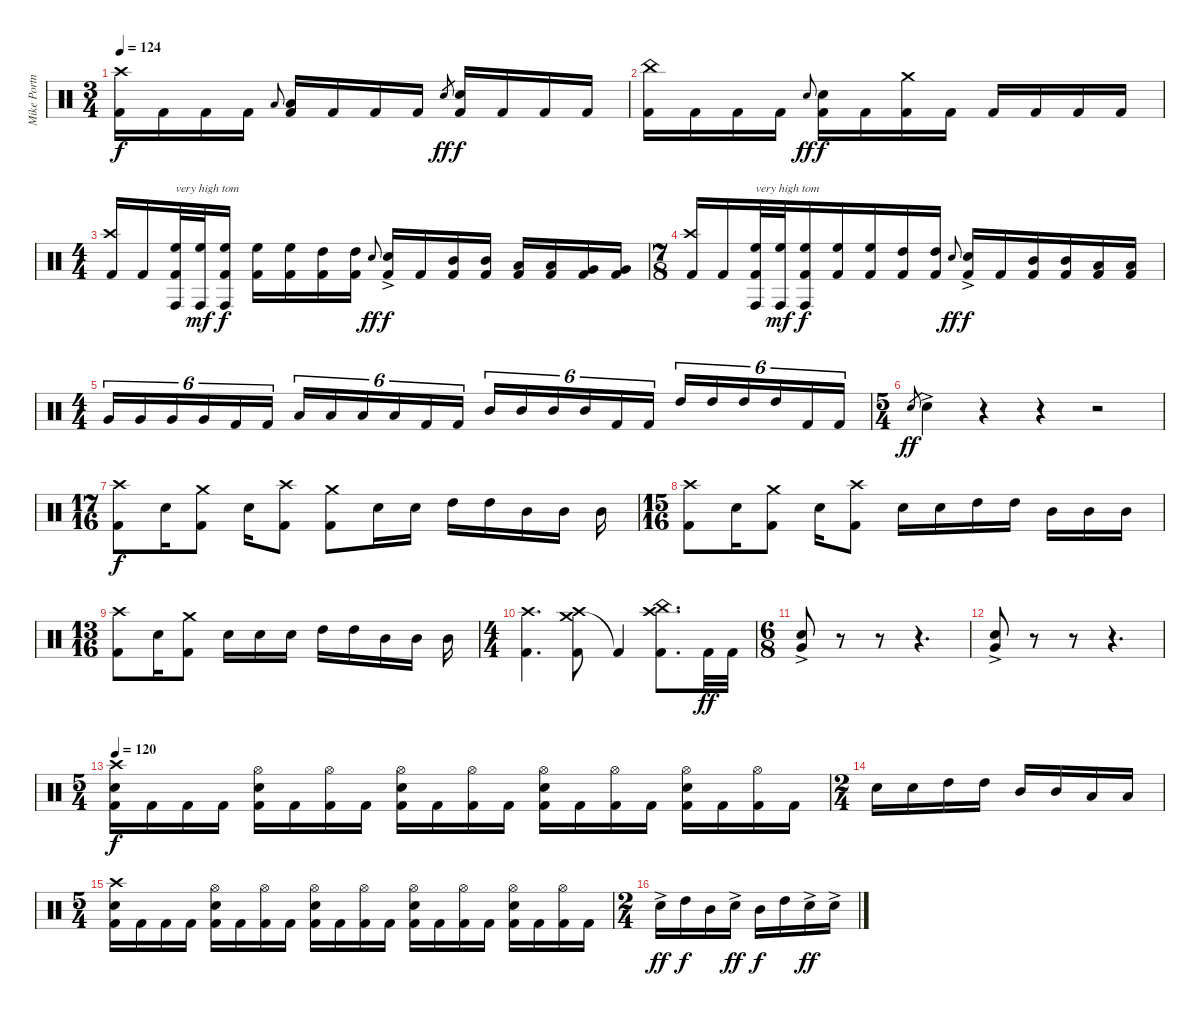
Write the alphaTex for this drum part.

\track ("Mike Portnoy" "Mike Portn") {instrument percussion}
\staff {score}
\articulation defaults
\ts (3 4)
\tempo 124
\clef neutral
\ks c
("Crash high (hit)" "Kick (hit) 2").16{dy f} "Kick (hit) 2".16 "Kick (hit) 2".16 "Kick (hit) 2".16 "Low Tom (hit)".8{gr onbeat} ("Low Tom (hit)" "Kick (hit) 2").16 "Kick (hit) 2".16 "Kick (hit) 2".16 "Kick (hit) 2".16 "Electric Snare (hit)".8{gr dy ff} ("Electric Snare (hit)" "Kick (hit) 2").16{dy f} "Kick (hit) 2".16 "Kick (hit) 2".16 "Kick (hit) 2".16 |
("China (hit)" "Kick (hit) 2").16 "Kick (hit) 2".16 "Kick (hit) 2".16 "Kick (hit) 2".16 "Electric Snare (hit)".8{gr onbeat dy ff} ("Electric Snare (hit)" "Kick (hit) 2").16{dy f} "Kick (hit) 2".16 ("Crash medium (hit)" "Kick (hit) 2").16 "Kick (hit) 2".16 "Kick (hit) 2".16 "Kick (hit) 2".16 "Kick (hit) 2".16 "Kick (hit) 2".16 |
\ts (4 4)
("Crash high (hit)" "Kick (hit) 2").16 "Kick (hit) 2".16 ("High Floor Tom (hit)" "Conga high (hit)" "Kick (hit) 2").32{txt "very high tom"} ("High Floor Tom (hit)" "Conga high (hit)").32{dy mf} ("High Floor Tom (hit)" "Conga high (hit)" "Kick (hit) 2").16{dy f} ("High Floor Tom (hit)" "Kick (hit) 2").16 ("High Floor Tom (hit)" "Kick (hit) 2").16 ("High Tom (hit)" "Kick (hit) 2").16 ("High Tom (hit)" "Kick (hit) 2").16 "Electric Snare (hit)".8{gr onbeat dy ff} ("Electric Snare (hit)"{ac} "Kick (hit) 2").16{dy f} "Kick (hit) 2".16 ("Mid Tom (hit)" "Kick (hit) 2").16 ("Mid Tom (hit)" "Kick (hit) 2").16 ("Low Tom (hit)" "Kick (hit) 2").16 ("Low Tom (hit)" "Kick (hit) 2").16 ("Very Low Tom (hit)" "Kick (hit) 2").16 ("Very Low Tom (hit)" "Kick (hit) 2").16 |
\ts (7 8)
("Crash high (hit)" "Kick (hit) 2").16 "Kick (hit) 2".16 ("High Floor Tom (hit)" "Conga high (hit)" "Kick (hit) 2").32{txt "very high tom"} ("High Floor Tom (hit)" "Conga high (hit)").32{dy mf} ("High Floor Tom (hit)" "Conga high (hit)" "Kick (hit) 2").16{dy f} ("High Floor Tom (hit)" "Kick (hit) 2").16 ("High Floor Tom (hit)" "Kick (hit) 2").16 ("High Tom (hit)" "Kick (hit) 2").16 ("High Tom (hit)" "Kick (hit) 2").16 "Electric Snare (hit)".8{gr onbeat dy ff} ("Electric Snare (hit)"{ac} "Kick (hit) 2").16{dy f} "Kick (hit) 2".16 ("Mid Tom (hit)" "Kick (hit) 2").16 ("Mid Tom (hit)" "Kick (hit) 2").16 ("Low Tom (hit)" "Kick (hit) 2").16 ("Low Tom (hit)" "Kick (hit) 2").16 |
\ts (4 4)
"Very Low Tom (hit)".16{tu (6 4)} "Very Low Tom (hit)".16{tu (6 4)} "Very Low Tom (hit)".16{tu (6 4)} "Very Low Tom (hit)".16{tu (6 4)} "Kick (hit) 2".16{tu (6 4)} "Kick (hit) 2".16{tu (6 4)} "Low Tom (hit)".16{tu (6 4)} "Low Tom (hit)".16{tu (6 4)} "Low Tom (hit)".16{tu (6 4)} "Low Tom (hit)".16{tu (6 4)} "Kick (hit) 2".16{tu (6 4)} "Kick (hit) 2".16{tu (6 4)} "Mid Tom (hit)".16{tu (6 4)} "Mid Tom (hit)".16{tu (6 4)} "Mid Tom (hit)".16{tu (6 4)} "Mid Tom (hit)".16{tu (6 4)} "Kick (hit) 2".16{tu (6 4)} "Kick (hit) 2".16{tu (6 4)} "High Tom (hit)".16{tu (6 4)} "High Tom (hit)".16{tu (6 4)} "High Tom (hit)".16{tu (6 4)} "High Tom (hit)".16{tu (6 4)} "Kick (hit) 2".16{tu (6 4)} "Kick (hit) 2".16{tu (6 4)} |
\ts (5 4)
"Electric Snare (hit)".8{gr dy ff} "Electric Snare (hit)"{ac}.4 r.4 r.4 r.2 |
\ts (17 16)
("Crash high (hit)" "Kick (hit) 2").8{dy f} "Electric Snare (hit)".16 ("Crash medium (hit)" "Kick (hit) 2").8 "Electric Snare (hit)".16 ("Crash high (hit)" "Kick (hit) 2").8 ("Crash medium (hit)" "Kick (hit) 2").8 "Electric Snare (hit)".16 "Electric Snare (hit)".16 "High Tom (hit)".16 "High Tom (hit)".16 "Mid Tom (hit)".16 "Mid Tom (hit)".16 "Mid Tom (hit)".16 |
\ts (15 16)
("Crash high (hit)" "Kick (hit) 2").8 "Electric Snare (hit)".16 ("Crash medium (hit)" "Kick (hit) 2").8 "Electric Snare (hit)".16 ("Crash high (hit)" "Kick (hit) 2").8 "Electric Snare (hit)".16 "Electric Snare (hit)".16 "High Tom (hit)".16 "High Tom (hit)".16 "Mid Tom (hit)".16 "Mid Tom (hit)".16 "Mid Tom (hit)".16 |
\ts (13 16)
("Crash high (hit)" "Kick (hit) 2").8 "Electric Snare (hit)".16 ("Crash medium (hit)" "Kick (hit) 2").8 "Electric Snare (hit)".16 "Electric Snare (hit)".16 "Electric Snare (hit)".16 "High Tom (hit)".16 "High Tom (hit)".16 "Mid Tom (hit)".16 "Mid Tom (hit)".16 "Mid Tom (hit)".16 |
\ts (4 4)
("Crash high (hit)" "Kick (hit) 2").4{d} ("Crash medium (hit)" "Crash high (hit)" "Kick (hit) 2").8 "Kick (hit) 2"{t}.4 ("China (hit)" "Crash high (hit)" "Kick (hit) 2").8{d} "Kick (hit) 2".32{dy ff} "Kick (hit) 2".32 |
\ts (6 8)
("Very Low Tom (hit)"{ac} "Electric Snare (hit)"{ac}).8 r.8 r.8 r.4{d} |
("Very Low Tom (hit)"{ac} "Electric Snare (hit)"{ac}).8 r.8 r.8 r.4{d} |
\ts (5 4)
\tempo 120
("Crash high (hit)" "Electric Snare (hit)" "Kick (hit) 2").16{dy f} "Kick (hit) 2".16 "Kick (hit) 2".16 "Kick (hit) 2".16 ("Hi-Hat (open)" "Electric Snare (hit)" "Kick (hit) 2").16 "Kick (hit) 2".16 ("Hi-Hat (open)" "Kick (hit) 2").16 "Kick (hit) 2".16 ("Hi-Hat (open)" "Electric Snare (hit)" "Kick (hit) 2").16 "Kick (hit) 2".16 ("Hi-Hat (open)" "Kick (hit) 2").16 "Kick (hit) 2".16 ("Hi-Hat (open)" "Electric Snare (hit)" "Kick (hit) 2").16 "Kick (hit) 2".16 ("Hi-Hat (open)" "Kick (hit) 2").16 "Kick (hit) 2".16 ("Hi-Hat (open)" "Electric Snare (hit)" "Kick (hit) 2").16 "Kick (hit) 2".16 ("Hi-Hat (open)" "Kick (hit) 2").16 "Kick (hit) 2".16 |
\ts (2 4)
"Electric Snare (hit)".16 "Electric Snare (hit)".16 "High Tom (hit)".16 "High Tom (hit)".16 "Mid Tom (hit)".16 "Mid Tom (hit)".16 "Low Tom (hit)".16 "Low Tom (hit)".16 |
\ts (5 4)
("Crash high (hit)" "Electric Snare (hit)" "Kick (hit) 2").16 "Kick (hit) 2".16 "Kick (hit) 2".16 "Kick (hit) 2".16 ("Hi-Hat (open)" "Electric Snare (hit)" "Kick (hit) 2").16 "Kick (hit) 2".16 ("Hi-Hat (open)" "Kick (hit) 2").16 "Kick (hit) 2".16 ("Hi-Hat (open)" "Electric Snare (hit)" "Kick (hit) 2").16 "Kick (hit) 2".16 ("Hi-Hat (open)" "Kick (hit) 2").16 "Kick (hit) 2".16 ("Hi-Hat (open)" "Electric Snare (hit)" "Kick (hit) 2").16 "Kick (hit) 2".16 ("Hi-Hat (open)" "Kick (hit) 2").16 "Kick (hit) 2".16 ("Hi-Hat (open)" "Electric Snare (hit)" "Kick (hit) 2").16 "Kick (hit) 2".16 ("Hi-Hat (open)" "Kick (hit) 2").16 "Kick (hit) 2".16 |
\ts (2 4)
"Electric Snare (hit)"{ac}.16{dy ff} "High Tom (hit)".16{dy f} "Mid Tom (hit)".16 "Electric Snare (hit)"{ac}.16{dy ff} "Mid Tom (hit)".16{dy f} "High Tom (hit)".16 "Electric Snare (hit)"{ac}.16{dy ff} "Electric Snare (hit)"{ac}.16
